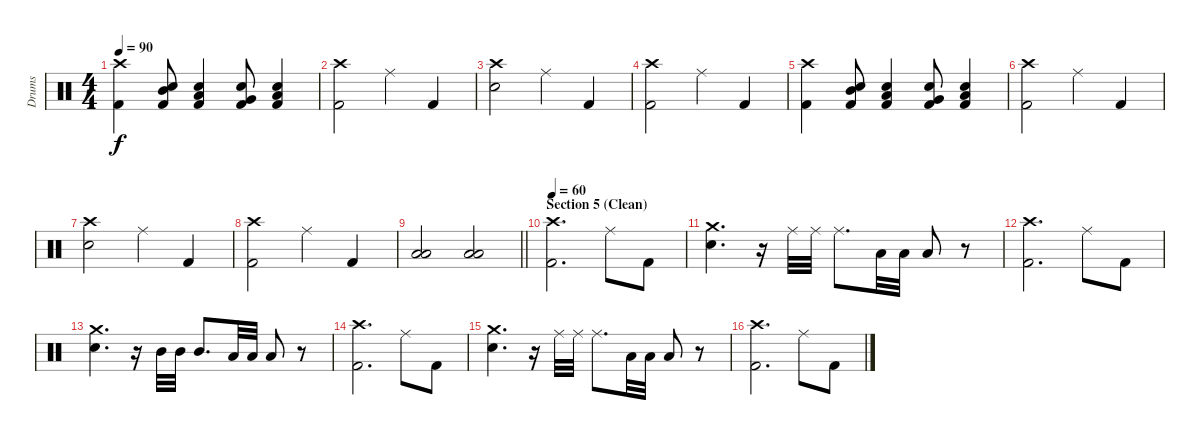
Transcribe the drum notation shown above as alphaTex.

\track ("Drums" "Drums") {instrument percussion}
\staff {score}
\articulation defaults
\ts (4 4)
\tempo 90
\clef neutral
\ks c
("Crash high (hit)" "Kick (hit) 2").4{dy f} ("Mid Tom (hit)" "Electric Snare (hit)" "Kick (hit) 2").8 ("Low Tom (hit)" "Electric Snare (hit)" "Kick (hit) 2").4 ("Very Low Tom (hit)" "Electric Snare (hit)" "Kick (hit) 2").8 ("Low Floor Tom (hit)" "Electric Snare (hit)" "Kick (hit) 2").4 |
("Crash high (hit)" "Kick (hit) 2").2 "Ride (middle)".4 "Kick (hit) 2".4 |
("Crash high (hit)" "Electric Snare (hit)").2 "Ride (middle)".4 "Kick (hit) 2".4 |
("Crash high (hit)" "Kick (hit) 2").2 "Ride (middle)".4 "Kick (hit) 2".4 |
("Crash high (hit)" "Kick (hit) 2").4 ("Mid Tom (hit)" "Electric Snare (hit)" "Kick (hit) 2").8 ("Low Tom (hit)" "Electric Snare (hit)" "Kick (hit) 2").4 ("Very Low Tom (hit)" "Electric Snare (hit)" "Kick (hit) 2").8 ("Low Floor Tom (hit)" "Electric Snare (hit)" "Kick (hit) 2").4 |
("Crash high (hit)" "Kick (hit) 2").2 "Ride (middle)".4 "Kick (hit) 2".4 |
("Crash high (hit)" "Electric Snare (hit)").2 "Ride (middle)".4 "Kick (hit) 2".4 |
("Crash high (hit)" "Kick (hit) 2").2 "Ride (middle)".4 "Kick (hit) 2".4 |
\barLineRight lightlight
("Low Floor Tom (hit)" "Low Floor Tom (hit)").2 ("Low Floor Tom (hit)" "Low Floor Tom (hit)").2 |
\section ("" "Section 5 (Clean)")
\tempo 60
("Crash high (hit)" "Kick (hit) 2").2{d} "Ride (middle)".8 "Kick (hit) 2".8 |
("Crash medium (hit)" "Electric Snare (hit)").4{d} r.16 "Ride (middle)".32 "Ride (middle)".32 "Ride (middle)".8{d} "Low Tom (hit)".32 "Low Tom (hit)".32 "Low Tom (hit)".8 r.8 |
("Crash high (hit)" "Kick (hit) 2").2{d} "Ride (middle)".8 "Kick (hit) 2".8 |
("Crash medium (hit)" "Electric Snare (hit)").4{d} r.16 "Mid Tom (hit)".32 "Mid Tom (hit)".32 "Mid Tom (hit)".8{d} "Low Tom (hit)".32 "Low Tom (hit)".32 "Low Tom (hit)".8 r.8 |
("Crash high (hit)" "Kick (hit) 2").2{d} "Ride (middle)".8 "Kick (hit) 2".8 |
("Crash medium (hit)" "Electric Snare (hit)").4{d} r.16 "Ride (middle)".32 "Ride (middle)".32 "Ride (middle)".8{d} "Low Tom (hit)".32 "Low Tom (hit)".32 "Low Tom (hit)".8 r.8 |
("Crash high (hit)" "Kick (hit) 2").2{d} "Ride (middle)".8 "Kick (hit) 2".8
